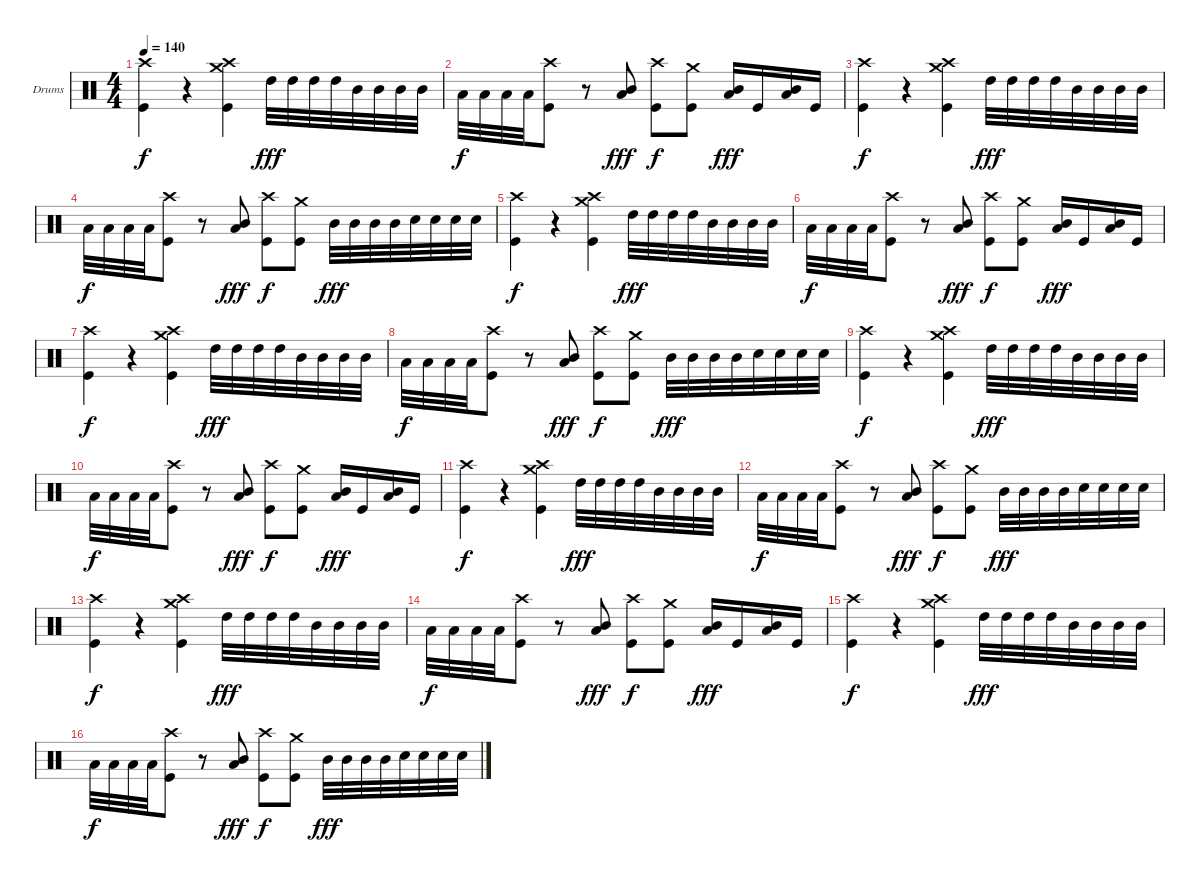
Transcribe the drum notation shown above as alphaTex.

\defaultSystemsLayout 4
\bracketExtendMode groupsimilarinstruments
\firstSystemTrackNameOrientation horizontal
\otherSystemsTrackNameOrientation horizontal
\track ("Drumkit" "Drums") {instrument percussion}
\staff {score}
\articulation defaults
\ts (4 4)
\tempo 140
\clef neutral
\ks c
("Crash high (hit)" "Kick (hit)").4{dy f} r.4 ("Crash high (hit)" "Crash medium (hit)" "Kick (hit)").4 "High Tom (hit)".32{dy fff} "High Tom (hit)".32 "High Tom (hit)".32 "High Tom (hit)".32 "Mid Tom (hit)".32 "Mid Tom (hit)".32 "Mid Tom (hit)".32 "Mid Tom (hit)".32 |
"Low Tom (hit)".32{dy f} "Low Tom (hit)".32 "Low Tom (hit)".32 "Low Tom (hit)".32 ("Crash high (hit)" "Kick (hit)").8 r.8 ("Mid Tom (hit)" "Low Tom (hit)").8{dy fff} ("Crash high (hit)" "Kick (hit)").8{dy f} ("Crash medium (hit)" "Kick (hit)").8 ("Mid Tom (hit)" "Low Tom (hit)").16{dy fff} "Kick (hit)".16 ("Mid Tom (hit)" "Low Tom (hit)").16 "Kick (hit)".16 |
("Crash high (hit)" "Kick (hit)").4{dy f} r.4 ("Crash high (hit)" "Crash medium (hit)" "Kick (hit)").4 "High Tom (hit)".32{dy fff} "High Tom (hit)".32 "High Tom (hit)".32 "High Tom (hit)".32 "Mid Tom (hit)".32 "Mid Tom (hit)".32 "Mid Tom (hit)".32 "Mid Tom (hit)".32 |
"Low Tom (hit)".32{dy f} "Low Tom (hit)".32 "Low Tom (hit)".32 "Low Tom (hit)".32 ("Crash high (hit)" "Kick (hit)").8 r.8 ("Mid Tom (hit)" "Low Tom (hit)").8{dy fff} ("Crash high (hit)" "Kick (hit)").8{dy f} ("Crash medium (hit)" "Kick (hit)").8 "Mid Tom (hit)".32{dy fff} "Mid Tom (hit)".32 "Mid Tom (hit)".32 "Mid Tom (hit)".32 "Snare (hit) 2".32 "Snare (hit) 2".32 "Snare (hit) 2".32 "Snare (hit) 2".32 |
("Crash high (hit)" "Kick (hit)").4{dy f} r.4 ("Crash high (hit)" "Crash medium (hit)" "Kick (hit)").4 "High Tom (hit)".32{dy fff} "High Tom (hit)".32 "High Tom (hit)".32 "High Tom (hit)".32 "Mid Tom (hit)".32 "Mid Tom (hit)".32 "Mid Tom (hit)".32 "Mid Tom (hit)".32 |
"Low Tom (hit)".32{dy f} "Low Tom (hit)".32 "Low Tom (hit)".32 "Low Tom (hit)".32 ("Crash high (hit)" "Kick (hit)").8 r.8 ("Mid Tom (hit)" "Low Tom (hit)").8{dy fff} ("Crash high (hit)" "Kick (hit)").8{dy f} ("Crash medium (hit)" "Kick (hit)").8 ("Mid Tom (hit)" "Low Tom (hit)").16{dy fff} "Kick (hit)".16 ("Mid Tom (hit)" "Low Tom (hit)").16 "Kick (hit)".16 |
("Crash high (hit)" "Kick (hit)").4{dy f} r.4 ("Crash high (hit)" "Crash medium (hit)" "Kick (hit)").4 "High Tom (hit)".32{dy fff} "High Tom (hit)".32 "High Tom (hit)".32 "High Tom (hit)".32 "Mid Tom (hit)".32 "Mid Tom (hit)".32 "Mid Tom (hit)".32 "Mid Tom (hit)".32 |
"Low Tom (hit)".32{dy f} "Low Tom (hit)".32 "Low Tom (hit)".32 "Low Tom (hit)".32 ("Crash high (hit)" "Kick (hit)").8 r.8 ("Mid Tom (hit)" "Low Tom (hit)").8{dy fff} ("Crash high (hit)" "Kick (hit)").8{dy f} ("Crash medium (hit)" "Kick (hit)").8 "Mid Tom (hit)".32{dy fff} "Mid Tom (hit)".32 "Mid Tom (hit)".32 "Mid Tom (hit)".32 "Snare (hit) 2".32 "Snare (hit) 2".32 "Snare (hit) 2".32 "Snare (hit) 2".32 |
("Crash high (hit)" "Kick (hit)").4{dy f} r.4 ("Crash high (hit)" "Crash medium (hit)" "Kick (hit)").4 "High Tom (hit)".32{dy fff} "High Tom (hit)".32 "High Tom (hit)".32 "High Tom (hit)".32 "Mid Tom (hit)".32 "Mid Tom (hit)".32 "Mid Tom (hit)".32 "Mid Tom (hit)".32 |
"Low Tom (hit)".32{dy f} "Low Tom (hit)".32 "Low Tom (hit)".32 "Low Tom (hit)".32 ("Crash high (hit)" "Kick (hit)").8 r.8 ("Mid Tom (hit)" "Low Tom (hit)").8{dy fff} ("Crash high (hit)" "Kick (hit)").8{dy f} ("Crash medium (hit)" "Kick (hit)").8 ("Mid Tom (hit)" "Low Tom (hit)").16{dy fff} "Kick (hit)".16 ("Mid Tom (hit)" "Low Tom (hit)").16 "Kick (hit)".16 |
("Crash high (hit)" "Kick (hit)").4{dy f} r.4 ("Crash high (hit)" "Crash medium (hit)" "Kick (hit)").4 "High Tom (hit)".32{dy fff} "High Tom (hit)".32 "High Tom (hit)".32 "High Tom (hit)".32 "Mid Tom (hit)".32 "Mid Tom (hit)".32 "Mid Tom (hit)".32 "Mid Tom (hit)".32 |
"Low Tom (hit)".32{dy f} "Low Tom (hit)".32 "Low Tom (hit)".32 "Low Tom (hit)".32 ("Crash high (hit)" "Kick (hit)").8 r.8 ("Mid Tom (hit)" "Low Tom (hit)").8{dy fff} ("Crash high (hit)" "Kick (hit)").8{dy f} ("Crash medium (hit)" "Kick (hit)").8 "Mid Tom (hit)".32{dy fff} "Mid Tom (hit)".32 "Mid Tom (hit)".32 "Mid Tom (hit)".32 "Snare (hit) 2".32 "Snare (hit) 2".32 "Snare (hit) 2".32 "Snare (hit) 2".32 |
("Crash high (hit)" "Kick (hit)").4{dy f} r.4 ("Crash high (hit)" "Crash medium (hit)" "Kick (hit)").4 "High Tom (hit)".32{dy fff} "High Tom (hit)".32 "High Tom (hit)".32 "High Tom (hit)".32 "Mid Tom (hit)".32 "Mid Tom (hit)".32 "Mid Tom (hit)".32 "Mid Tom (hit)".32 |
"Low Tom (hit)".32{dy f} "Low Tom (hit)".32 "Low Tom (hit)".32 "Low Tom (hit)".32 ("Crash high (hit)" "Kick (hit)").8 r.8 ("Mid Tom (hit)" "Low Tom (hit)").8{dy fff} ("Crash high (hit)" "Kick (hit)").8{dy f} ("Crash medium (hit)" "Kick (hit)").8 ("Mid Tom (hit)" "Low Tom (hit)").16{dy fff} "Kick (hit)".16 ("Mid Tom (hit)" "Low Tom (hit)").16 "Kick (hit)".16 |
("Crash high (hit)" "Kick (hit)").4{dy f} r.4 ("Crash high (hit)" "Crash medium (hit)" "Kick (hit)").4 "High Tom (hit)".32{dy fff} "High Tom (hit)".32 "High Tom (hit)".32 "High Tom (hit)".32 "Mid Tom (hit)".32 "Mid Tom (hit)".32 "Mid Tom (hit)".32 "Mid Tom (hit)".32 |
"Low Tom (hit)".32{dy f} "Low Tom (hit)".32 "Low Tom (hit)".32 "Low Tom (hit)".32 ("Crash high (hit)" "Kick (hit)").8 r.8 ("Mid Tom (hit)" "Low Tom (hit)").8{dy fff} ("Crash high (hit)" "Kick (hit)").8{dy f} ("Crash medium (hit)" "Kick (hit)").8 "Mid Tom (hit)".32{dy fff} "Mid Tom (hit)".32 "Mid Tom (hit)".32 "Mid Tom (hit)".32 "Snare (hit) 2".32 "Snare (hit) 2".32 "Snare (hit) 2".32 "Snare (hit) 2".32
